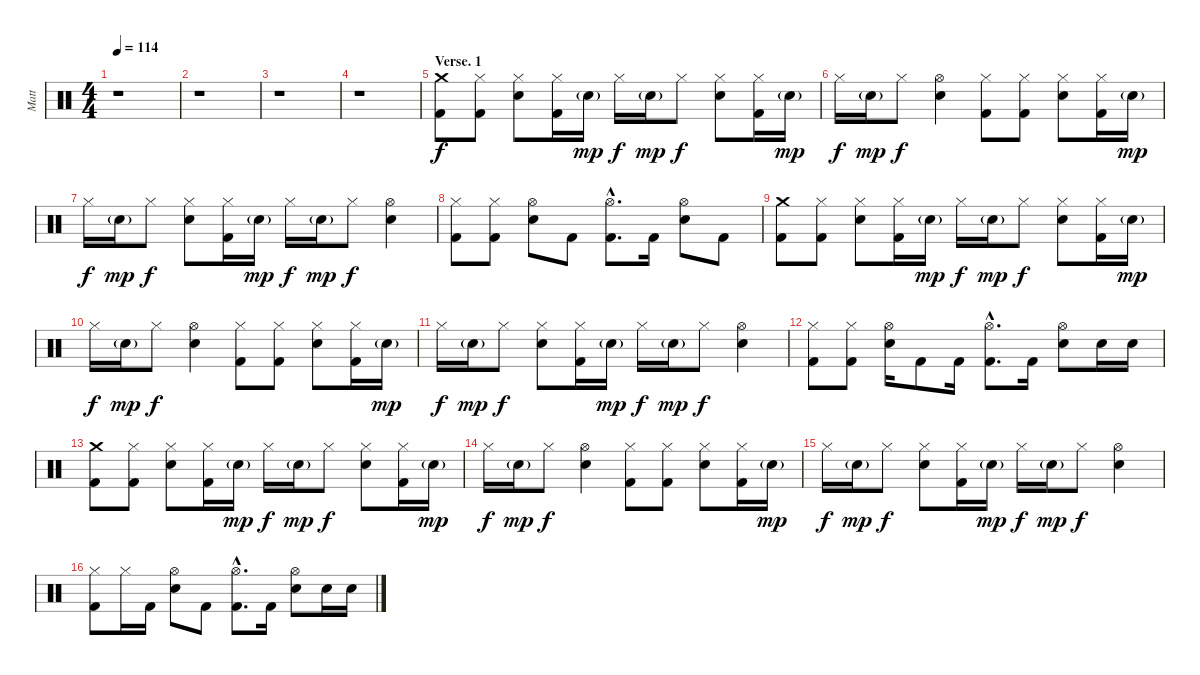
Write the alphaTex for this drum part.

\track ("Matt" "Matt") {instrument percussion}
\staff {score}
\articulation defaults
\ts (4 4)
\tempo 114
\clef neutral
\ks c
r.1{dy f} |
r.1 |
r.1 |
r.1 |
\section ("" "Verse. 1")
("Crash medium (hit)" "Kick (hit) 2").8 ("Hi-Hat (closed)" "Kick (hit) 2").8 ("Hi-Hat (closed)" "Electric Snare (hit)").8 ("Hi-Hat (closed)" "Kick (hit) 2").16 "Electric Snare (hit)"{g}.16{dy mp} "Hi-Hat (closed)".16{dy f} "Electric Snare (hit)"{g}.16{dy mp} "Hi-Hat (closed)".8{dy f} ("Hi-Hat (closed)" "Electric Snare (hit)").8 ("Hi-Hat (closed)" "Kick (hit) 2").16 "Electric Snare (hit)"{g}.16{dy mp} |
"Hi-Hat (closed)".16{dy f} "Electric Snare (hit)"{g}.16{dy mp} "Hi-Hat (closed)".8{dy f} ("Hi-Hat (open)" "Electric Snare (hit)").4 ("Hi-Hat (closed)" "Kick (hit) 2").8 ("Hi-Hat (closed)" "Kick (hit) 2").8 ("Hi-Hat (closed)" "Electric Snare (hit)").8 ("Hi-Hat (closed)" "Kick (hit) 2").16 "Electric Snare (hit)"{g}.16{dy mp} |
"Hi-Hat (closed)".16{dy f} "Electric Snare (hit)"{g}.16{dy mp} "Hi-Hat (closed)".8{dy f} ("Hi-Hat (closed)" "Electric Snare (hit)").8 ("Hi-Hat (closed)" "Kick (hit) 2").16 "Electric Snare (hit)"{g}.16{dy mp} "Hi-Hat (closed)".16{dy f} "Electric Snare (hit)"{g}.16{dy mp} "Hi-Hat (closed)".8{dy f} ("Hi-Hat (open)" "Electric Snare (hit)").4 |
("Hi-Hat (closed)" "Kick (hit) 2").8 ("Hi-Hat (closed)" "Kick (hit) 2").8 ("Hi-Hat (open)" "Electric Snare (hit)").8 "Kick (hit) 2".8 ("Hi-Hat (open)"{hac} "Kick (hit) 2"{hac}).8{d} "Kick (hit) 2".16 ("Hi-Hat (open)" "Electric Snare (hit)").8 "Kick (hit) 2".8 |
("Crash medium (hit)" "Kick (hit) 2").8 ("Hi-Hat (closed)" "Kick (hit) 2").8 ("Hi-Hat (closed)" "Electric Snare (hit)").8 ("Hi-Hat (closed)" "Kick (hit) 2").16 "Electric Snare (hit)"{g}.16{dy mp} "Hi-Hat (closed)".16{dy f} "Electric Snare (hit)"{g}.16{dy mp} "Hi-Hat (closed)".8{dy f} ("Hi-Hat (closed)" "Electric Snare (hit)").8 ("Hi-Hat (closed)" "Kick (hit) 2").16 "Electric Snare (hit)"{g}.16{dy mp} |
"Hi-Hat (closed)".16{dy f} "Electric Snare (hit)"{g}.16{dy mp} "Hi-Hat (closed)".8{dy f} ("Hi-Hat (open)" "Electric Snare (hit)").4 ("Hi-Hat (closed)" "Kick (hit) 2").8 ("Hi-Hat (closed)" "Kick (hit) 2").8 ("Hi-Hat (closed)" "Electric Snare (hit)").8 ("Hi-Hat (closed)" "Kick (hit) 2").16 "Electric Snare (hit)"{g}.16{dy mp} |
"Hi-Hat (closed)".16{dy f} "Electric Snare (hit)"{g}.16{dy mp} "Hi-Hat (closed)".8{dy f} ("Hi-Hat (closed)" "Electric Snare (hit)").8 ("Hi-Hat (closed)" "Kick (hit) 2").16 "Electric Snare (hit)"{g}.16{dy mp} "Hi-Hat (closed)".16{dy f} "Electric Snare (hit)"{g}.16{dy mp} "Hi-Hat (closed)".8{dy f} ("Hi-Hat (open)" "Electric Snare (hit)").4 |
("Hi-Hat (closed)" "Kick (hit) 2").8 ("Hi-Hat (closed)" "Kick (hit) 2").8 ("Hi-Hat (open)" "Electric Snare (hit)").16 "Kick (hit) 2".8 "Kick (hit) 2".16 ("Hi-Hat (open)"{hac} "Kick (hit) 2"{hac}).8{d} "Kick (hit) 2".16 ("Hi-Hat (open)" "Electric Snare (hit)").8 "Electric Snare (hit)".16 "Electric Snare (hit)".16 |
("Crash medium (hit)" "Kick (hit) 2").8 ("Hi-Hat (closed)" "Kick (hit) 2").8 ("Hi-Hat (closed)" "Electric Snare (hit)").8 ("Hi-Hat (closed)" "Kick (hit) 2").16 "Electric Snare (hit)"{g}.16{dy mp} "Hi-Hat (closed)".16{dy f} "Electric Snare (hit)"{g}.16{dy mp} "Hi-Hat (closed)".8{dy f} ("Hi-Hat (closed)" "Electric Snare (hit)").8 ("Hi-Hat (closed)" "Kick (hit) 2").16 "Electric Snare (hit)"{g}.16{dy mp} |
"Hi-Hat (closed)".16{dy f} "Electric Snare (hit)"{g}.16{dy mp} "Hi-Hat (closed)".8{dy f} ("Hi-Hat (open)" "Electric Snare (hit)").4 ("Hi-Hat (closed)" "Kick (hit) 2").8 ("Hi-Hat (closed)" "Kick (hit) 2").8 ("Hi-Hat (closed)" "Electric Snare (hit)").8 ("Hi-Hat (closed)" "Kick (hit) 2").16 "Electric Snare (hit)"{g}.16{dy mp} |
"Hi-Hat (closed)".16{dy f} "Electric Snare (hit)"{g}.16{dy mp} "Hi-Hat (closed)".8{dy f} ("Hi-Hat (closed)" "Electric Snare (hit)").8 ("Hi-Hat (closed)" "Kick (hit) 2").16 "Electric Snare (hit)"{g}.16{dy mp} "Hi-Hat (closed)".16{dy f} "Electric Snare (hit)"{g}.16{dy mp} "Hi-Hat (closed)".8{dy f} ("Hi-Hat (open)" "Electric Snare (hit)").4 |
("Hi-Hat (closed)" "Kick (hit) 2").8 "Hi-Hat (closed)".16 "Kick (hit) 2".16 ("Hi-Hat (open)" "Electric Snare (hit)").8 "Kick (hit) 2".8 ("Hi-Hat (open)"{hac} "Kick (hit) 2"{hac}).8{d} "Kick (hit) 2".16 ("Hi-Hat (open)" "Electric Snare (hit)").8 "Electric Snare (hit)".16 "Electric Snare (hit)".16
